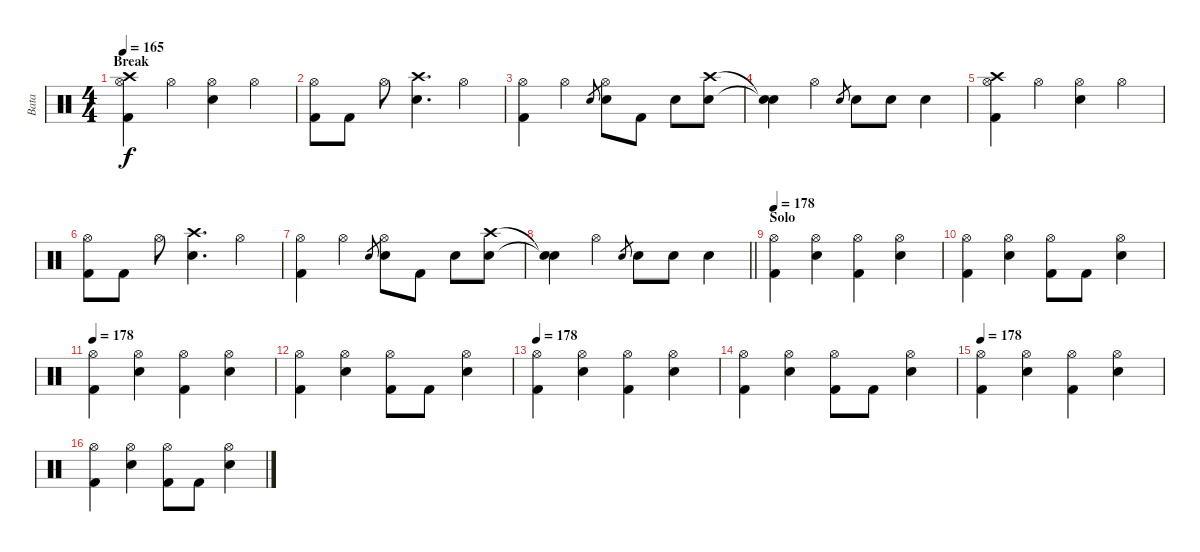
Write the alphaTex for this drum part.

\track ("Bata" "Bata") {instrument percussion}
\staff {score}
\articulation defaults
\ts (4 4)
\section ("" "Break")
\tempo 165
\clef neutral
\ks c
("Hi-Hat (open)" "Crash high (hit)" "Kick (hit) 2").4{dy f} "Hi-Hat (open)".4 ("Hi-Hat (open)" "Snare (hit) 2").4 "Hi-Hat (open)".4 |
("Hi-Hat (open)" "Kick (hit) 2").8 "Kick (hit) 2".8 "Hi-Hat (open)".8 ("Crash high (hit)" "Snare (hit) 2").4{d} "Hi-Hat (open)".4 |
("Hi-Hat (open)" "Kick (hit) 2").4 "Hi-Hat (open)".4 "Snare (hit) 2".8{gr} ("Hi-Hat (open)" "Snare (hit) 2").8 "Kick (hit) 2".8 "Snare (hit) 2".8 ("Crash high (hit)" "Snare (hit) 2").8 |
("Snare (hit)"{t} "Snare (hit)"{t}).4 "Hi-Hat (open)".4 "Snare (hit) 2".8{gr} "Snare (hit) 2".8 "Snare (hit) 2".8 "Snare (hit) 2".4 |
("Hi-Hat (open)" "Crash high (hit)" "Kick (hit) 2").4 "Hi-Hat (open)".4 ("Hi-Hat (open)" "Snare (hit) 2").4 "Hi-Hat (open)".4 |
("Hi-Hat (open)" "Kick (hit) 2").8 "Kick (hit) 2".8 "Hi-Hat (open)".8 ("Crash high (hit)" "Snare (hit) 2").4{d} "Hi-Hat (open)".4 |
("Hi-Hat (open)" "Kick (hit) 2").4 "Hi-Hat (open)".4 "Snare (hit) 2".8{gr} ("Hi-Hat (open)" "Snare (hit) 2").8 "Kick (hit) 2".8 "Snare (hit) 2".8 ("Crash high (hit)" "Snare (hit) 2").8 |
\barLineRight lightlight
("Snare (hit)"{t} "Snare (hit)"{t}).4 "Hi-Hat (open)".4 "Snare (hit) 2".8{gr} "Snare (hit) 2".8 "Snare (hit) 2".8 "Snare (hit) 2".4 |
\section ("" "Solo")
\tempo 178
("Hi-Hat (open)" "Kick (hit) 2").4 ("Hi-Hat (open)" "Snare (hit) 2").4 ("Hi-Hat (open)" "Kick (hit) 2").4 ("Hi-Hat (open)" "Snare (hit) 2").4 |
("Hi-Hat (open)" "Kick (hit) 2").4 ("Hi-Hat (open)" "Snare (hit) 2").4 ("Hi-Hat (open)" "Kick (hit) 2").8 "Kick (hit) 2".8 ("Hi-Hat (open)" "Snare (hit) 2").4 |
\tempo 178
("Hi-Hat (open)" "Kick (hit) 2").4 ("Hi-Hat (open)" "Snare (hit) 2").4 ("Hi-Hat (open)" "Kick (hit) 2").4 ("Hi-Hat (open)" "Snare (hit) 2").4 |
("Hi-Hat (open)" "Kick (hit) 2").4 ("Hi-Hat (open)" "Snare (hit) 2").4 ("Hi-Hat (open)" "Kick (hit) 2").8 "Kick (hit) 2".8 ("Hi-Hat (open)" "Snare (hit) 2").4 |
\tempo 178
("Hi-Hat (open)" "Kick (hit) 2").4 ("Hi-Hat (open)" "Snare (hit) 2").4 ("Hi-Hat (open)" "Kick (hit) 2").4 ("Hi-Hat (open)" "Snare (hit) 2").4 |
("Hi-Hat (open)" "Kick (hit) 2").4 ("Hi-Hat (open)" "Snare (hit) 2").4 ("Hi-Hat (open)" "Kick (hit) 2").8 "Kick (hit) 2".8 ("Hi-Hat (open)" "Snare (hit) 2").4 |
\tempo 178
("Hi-Hat (open)" "Kick (hit) 2").4 ("Hi-Hat (open)" "Snare (hit) 2").4 ("Hi-Hat (open)" "Kick (hit) 2").4 ("Hi-Hat (open)" "Snare (hit) 2").4 |
("Hi-Hat (open)" "Kick (hit) 2").4 ("Hi-Hat (open)" "Snare (hit) 2").4 ("Hi-Hat (open)" "Kick (hit) 2").8 "Kick (hit) 2".8 ("Hi-Hat (open)" "Snare (hit) 2").4
